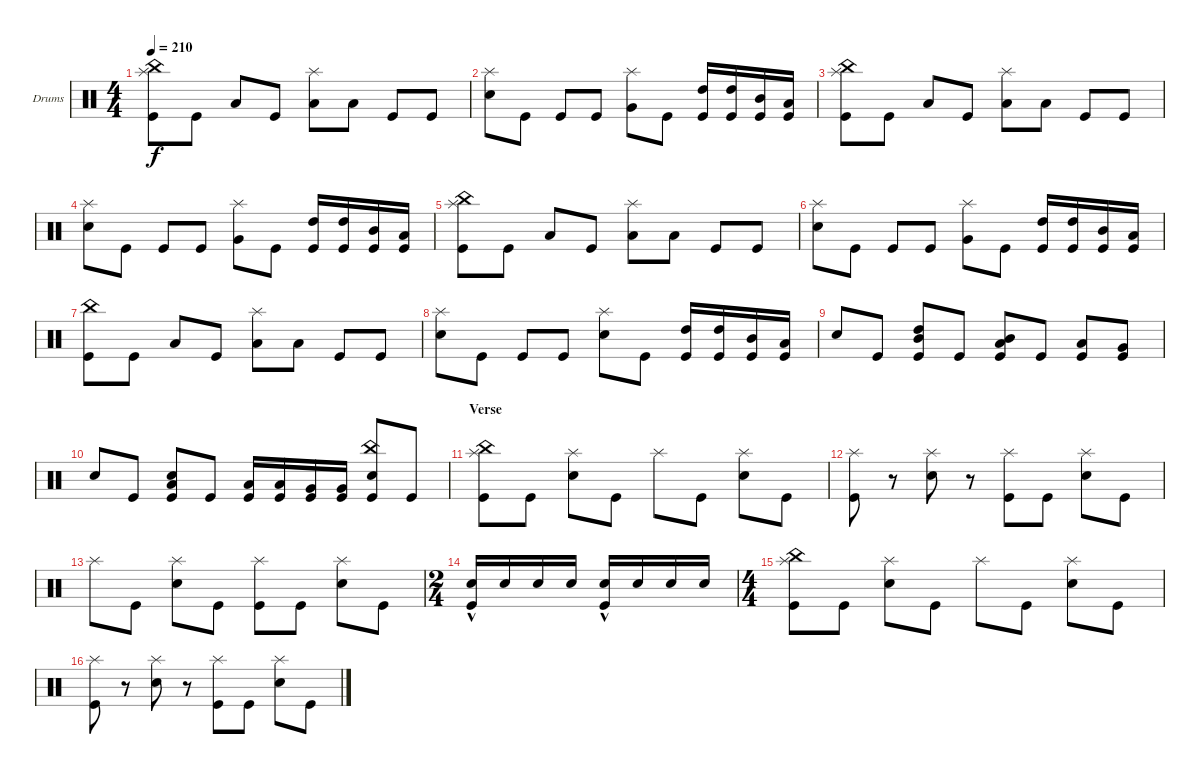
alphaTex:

\defaultSystemsLayout 4
\bracketExtendMode groupsimilarinstruments
\firstSystemTrackNameOrientation horizontal
\otherSystemsTrackNameOrientation horizontal
\track ("Drumkit" "Drums") {instrument percussion}
\staff {score}
\articulation defaults
\ts (4 4)
\tempo 210
\clef neutral
\ks c
("Kick (hit)" "Splash (hit)" "China (hit)").8{dy f} "Kick (hit)".8 "Low Tom (hit)".8 "Kick (hit)".8 ("Splash (hit)" "Low Tom (hit)").8 "Low Tom (hit)".8 "Kick (hit)".8 "Kick (hit)".8 |
("Snare (hit) 2" "Splash (hit)").8 "Kick (hit)".8 "Kick (hit)".8 "Kick (hit)".8 ("Splash (hit)" "Very Low Tom (hit)").8 "Kick (hit)".8 ("High Tom (hit)" "Kick (hit)").16 ("High Tom (hit)" "Kick (hit)").16 ("Mid Tom (hit)" "Kick (hit)").16 ("Low Tom (hit)" "Kick (hit)").16 |
("Kick (hit)" "Splash (hit)" "China (hit)").8 "Kick (hit)".8 "Low Tom (hit)".8 "Kick (hit)".8 ("Splash (hit)" "Low Tom (hit)").8 "Low Tom (hit)".8 "Kick (hit)".8 "Kick (hit)".8 |
("Snare (hit) 2" "Splash (hit)").8 "Kick (hit)".8 "Kick (hit)".8 "Kick (hit)".8 ("Splash (hit)" "Very Low Tom (hit)").8 "Kick (hit)".8 ("High Tom (hit)" "Kick (hit)").16 ("High Tom (hit)" "Kick (hit)").16 ("Mid Tom (hit)" "Kick (hit)").16 ("Low Tom (hit)" "Kick (hit)").16 |
("Kick (hit)" "Splash (hit)" "China (hit)").8 "Kick (hit)".8 "Low Tom (hit)".8 "Kick (hit)".8 ("Splash (hit)" "Low Tom (hit)").8 "Low Tom (hit)".8 "Kick (hit)".8 "Kick (hit)".8 |
("Snare (hit) 2" "Splash (hit)").8 "Kick (hit)".8 "Kick (hit)".8 "Kick (hit)".8 ("Splash (hit)" "Very Low Tom (hit)").8 "Kick (hit)".8 ("High Tom (hit)" "Kick (hit)").16 ("High Tom (hit)" "Kick (hit)").16 ("Mid Tom (hit)" "Kick (hit)").16 ("Low Tom (hit)" "Kick (hit)").16 |
("China (hit)" "Kick (hit)").8 "Kick (hit)".8 "Low Tom (hit)".8 "Kick (hit)".8 ("Splash (hit)" "Low Tom (hit)").8 "Low Tom (hit)".8 "Kick (hit)".8 "Kick (hit)".8 |
("Splash (hit)" "Snare (hit) 2").8 "Kick (hit)".8 "Kick (hit)".8 "Kick (hit)".8 ("Snare (hit) 2" "Splash (hit)").8 "Kick (hit)".8 ("High Tom (hit)" "Kick (hit)").16 ("High Tom (hit)" "Kick (hit)").16 ("Mid Tom (hit)" "Kick (hit)").16 ("Low Tom (hit)" "Kick (hit)").16 |
"Snare (hit) 2".8 "Kick (hit)".8 ("Kick (hit)" "Mid Tom (hit)" "High Tom (hit)").8 "Kick (hit)".8 ("Kick (hit)" "Mid Tom (hit)" "Low Tom (hit)").8 "Kick (hit)".8 ("Kick (hit)" "Low Tom (hit)").8 ("Kick (hit)" "Very Low Tom (hit)").8 |
"Snare (hit) 2".8 "Kick (hit)".8 ("Kick (hit)" "Low Tom (hit)" "Snare (hit) 2").8 "Kick (hit)".8 ("Kick (hit)" "Low Tom (hit)").16 ("Kick (hit)" "Low Tom (hit)").16 ("Kick (hit)" "Very Low Tom (hit)").16 ("Kick (hit)" "Very Low Tom (hit)").16 ("Kick (hit)" "Snare (hit) 2" "China (hit)").8 "Kick (hit)".8 |
\section ("" "Verse")
("Splash (hit)" "Kick (hit)" "China (hit)").8 "Kick (hit)".8 ("Splash (hit)" "Snare (hit) 2").8 "Kick (hit)".8 "Splash (hit)".8 "Kick (hit)".8 ("Splash (hit)" "Snare (hit) 2").8 "Kick (hit)".8 |
("Kick (hit)" "Splash (hit)").8 r.8 ("Splash (hit)" "Snare (hit) 2").8 r.8 ("Splash (hit)" "Kick (hit)").8 "Kick (hit)".8 ("Splash (hit)" "Snare (hit) 2").8 "Kick (hit)".8 |
"Splash (hit)".8 "Kick (hit)".8 ("Splash (hit)" "Snare (hit) 2").8 "Kick (hit)".8 ("Splash (hit)" "Kick (hit)").8 "Kick (hit)".8 ("Splash (hit)" "Snare (hit) 2").8 "Kick (hit)".8 |
\ts (2 4)
("Snare (hit) 2"{hac} "Kick (hit)").16 "Snare (hit) 2".16 "Snare (hit) 2".16 "Snare (hit) 2".16 ("Snare (hit) 2"{hac} "Kick (hit)").16 "Snare (hit) 2".16 "Snare (hit) 2".16 "Snare (hit) 2".16 |
\ts (4 4)
("Splash (hit)" "Kick (hit)" "China (hit)").8 "Kick (hit)".8 ("Splash (hit)" "Snare (hit) 2").8 "Kick (hit)".8 "Splash (hit)".8 "Kick (hit)".8 ("Splash (hit)" "Snare (hit) 2").8 "Kick (hit)".8 |
("Kick (hit)" "Splash (hit)").8 r.8 ("Splash (hit)" "Snare (hit) 2").8 r.8 ("Splash (hit)" "Kick (hit)").8 "Kick (hit)".8 ("Splash (hit)" "Snare (hit) 2").8 "Kick (hit)".8
